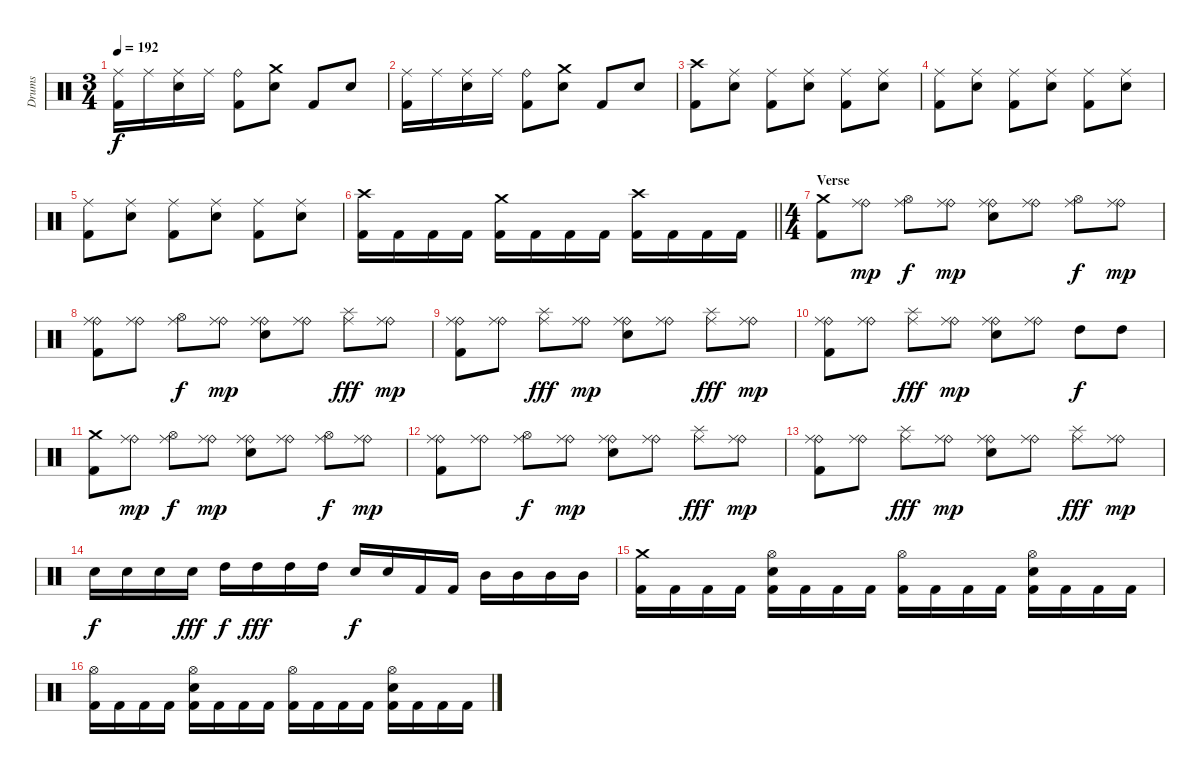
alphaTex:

\track ("Drums" "Drums") {instrument percussion}
\staff {score}
\articulation defaults
\ts (3 4)
\tempo 192
\clef neutral
\ks c
("Ride (middle)" "Kick (hit) 2").16{dy f} "Ride (middle)".16 ("Ride (middle)" "Electric Snare (hit)").16 "Ride (middle)".16 ("Ride (bell)" "Kick (hit) 2").8 ("Crash medium (hit)" "Electric Snare (hit)").8 "Kick (hit) 2".8 "Electric Snare (hit)".8 |
("Ride (middle)" "Kick (hit) 2").16 "Ride (middle)".16 ("Ride (middle)" "Electric Snare (hit)").16 "Ride (middle)".16 ("Ride (bell)" "Kick (hit) 2").8 ("Crash medium (hit)" "Electric Snare (hit)").8 "Kick (hit) 2".8 "Electric Snare (hit)".8 |
("Crash high (hit)" "Kick (hit) 2").8 ("Ride (middle)" "Electric Snare (hit)").8 ("Ride (middle)" "Kick (hit) 2").8 ("Ride (middle)" "Electric Snare (hit)").8 ("Ride (middle)" "Kick (hit) 2").8 ("Ride (middle)" "Electric Snare (hit)").8 |
("Ride (middle)" "Kick (hit) 2").8 ("Ride (middle)" "Electric Snare (hit)").8 ("Ride (middle)" "Kick (hit) 2").8 ("Ride (middle)" "Electric Snare (hit)").8 ("Ride (middle)" "Kick (hit) 2").8 ("Ride (middle)" "Electric Snare (hit)").8 |
("Ride (middle)" "Kick (hit) 2").8 ("Ride (middle)" "Electric Snare (hit)").8 ("Ride (middle)" "Kick (hit) 2").8 ("Ride (middle)" "Electric Snare (hit)").8 ("Ride (middle)" "Kick (hit) 2").8 ("Ride (middle)" "Electric Snare (hit)").8 |
\barLineRight lightlight
("Crash high (hit)" "Kick (hit) 2").16 "Kick (hit) 2".16 "Kick (hit) 2".16 "Kick (hit) 2".16 ("Crash medium (hit)" "Kick (hit) 2").16 "Kick (hit) 2".16 "Kick (hit) 2".16 "Kick (hit) 2".16 ("Crash high (hit)" "Kick (hit) 2").16 "Kick (hit) 2".16 "Kick (hit) 2".16 "Kick (hit) 2".16 |
\ts (4 4)
\section ("" "Verse")
("Crash medium (hit)" "Kick (hit) 2").8 ("Ride (bell)" "Ride (middle)").8{dy mp} ("Ride (middle)" "Hi-Hat (open)").8{dy f} ("Ride (bell)" "Ride (middle)").8{dy mp} ("Ride (bell)" "Ride (middle)" "Electric Snare (hit)").8 ("Ride (bell)" "Ride (middle)").8 ("Ride (middle)" "Hi-Hat (open)").8{dy f} ("Ride (bell)" "Ride (middle)").8{dy mp} |
("Ride (bell)" "Ride (middle)" "Kick (hit) 2").8 ("Ride (bell)" "Ride (middle)").8 ("Ride (middle)" "Hi-Hat (open)").8{dy f} ("Ride (bell)" "Ride (middle)").8{dy mp} ("Ride (bell)" "Ride (middle)" "Electric Snare (hit)").8 ("Ride (bell)" "Ride (middle)").8 ("Ride (middle)" "Splash (hit)").8{dy fff} ("Ride (bell)" "Ride (middle)").8{dy mp} |
("Ride (bell)" "Ride (middle)" "Kick (hit) 2").8 ("Ride (bell)" "Ride (middle)").8 ("Ride (middle)" "Splash (hit)").8{dy fff} ("Ride (bell)" "Ride (middle)").8{dy mp} ("Ride (bell)" "Ride (middle)" "Electric Snare (hit)").8 ("Ride (bell)" "Ride (middle)").8 ("Ride (middle)" "Splash (hit)").8{dy fff} ("Ride (bell)" "Ride (middle)").8{dy mp} |
("Ride (bell)" "Ride (middle)" "Kick (hit) 2").8 ("Ride (bell)" "Ride (middle)").8 ("Ride (middle)" "Splash (hit)").8{dy fff} ("Ride (bell)" "Ride (middle)").8{dy mp} ("Ride (bell)" "Ride (middle)" "Electric Snare (hit)").8 ("Ride (bell)" "Ride (middle)").8 "High Tom (hit)".8{dy f} "High Tom (hit)".8 |
("Crash medium (hit)" "Kick (hit) 2").8 ("Ride (bell)" "Ride (middle)").8{dy mp} ("Ride (middle)" "Hi-Hat (open)").8{dy f} ("Ride (bell)" "Ride (middle)").8{dy mp} ("Ride (bell)" "Ride (middle)" "Electric Snare (hit)").8 ("Ride (bell)" "Ride (middle)").8 ("Ride (middle)" "Hi-Hat (open)").8{dy f} ("Ride (bell)" "Ride (middle)").8{dy mp} |
("Ride (bell)" "Ride (middle)" "Kick (hit) 2").8 ("Ride (bell)" "Ride (middle)").8 ("Ride (middle)" "Hi-Hat (open)").8{dy f} ("Ride (bell)" "Ride (middle)").8{dy mp} ("Ride (bell)" "Ride (middle)" "Electric Snare (hit)").8 ("Ride (bell)" "Ride (middle)").8 ("Ride (middle)" "Splash (hit)").8{dy fff} ("Ride (bell)" "Ride (middle)").8{dy mp} |
("Ride (bell)" "Ride (middle)" "Kick (hit) 2").8 ("Ride (bell)" "Ride (middle)").8 ("Ride (middle)" "Splash (hit)").8{dy fff} ("Ride (bell)" "Ride (middle)").8{dy mp} ("Ride (bell)" "Ride (middle)" "Electric Snare (hit)").8 ("Ride (bell)" "Ride (middle)").8 ("Ride (middle)" "Splash (hit)").8{dy fff} ("Ride (bell)" "Ride (middle)").8{dy mp} |
"Electric Snare (hit)".16{dy f} "Electric Snare (hit)".16 "Electric Snare (hit)".16 "Electric Snare (hit)".16{dy fff} "High Tom (hit)".16{dy f} "High Tom (hit)".16{dy fff} "High Tom (hit)".16 "High Tom (hit)".16 "Electric Snare (hit)".16{dy f} "Electric Snare (hit)".16 "Kick (hit) 2".16 "Kick (hit) 2".16 "Mid Tom (hit)".16 "Mid Tom (hit)".16 "Mid Tom (hit)".16 "Mid Tom (hit)".16 |
("Crash medium (hit)" "Kick (hit) 2").16 "Kick (hit) 2".16 "Kick (hit) 2".16 "Kick (hit) 2".16 ("Hi-Hat (open)" "Electric Snare (hit)" "Kick (hit) 2").16 "Kick (hit) 2".16 "Kick (hit) 2".16 "Kick (hit) 2".16 ("Hi-Hat (open)" "Kick (hit) 2").16 "Kick (hit) 2".16 "Kick (hit) 2".16 "Kick (hit) 2".16 ("Hi-Hat (open)" "Electric Snare (hit)" "Kick (hit) 2").16 "Kick (hit) 2".16 "Kick (hit) 2".16 "Kick (hit) 2".16 |
("Hi-Hat (open)" "Kick (hit) 2").16 "Kick (hit) 2".16 "Kick (hit) 2".16 "Kick (hit) 2".16 ("Hi-Hat (open)" "Electric Snare (hit)" "Kick (hit) 2").16 "Kick (hit) 2".16 "Kick (hit) 2".16 "Kick (hit) 2".16 ("Hi-Hat (open)" "Kick (hit) 2").16 "Kick (hit) 2".16 "Kick (hit) 2".16 "Kick (hit) 2".16 ("Hi-Hat (open)" "Electric Snare (hit)" "Kick (hit) 2").16 "Kick (hit) 2".16 "Kick (hit) 2".16 "Kick (hit) 2".16
